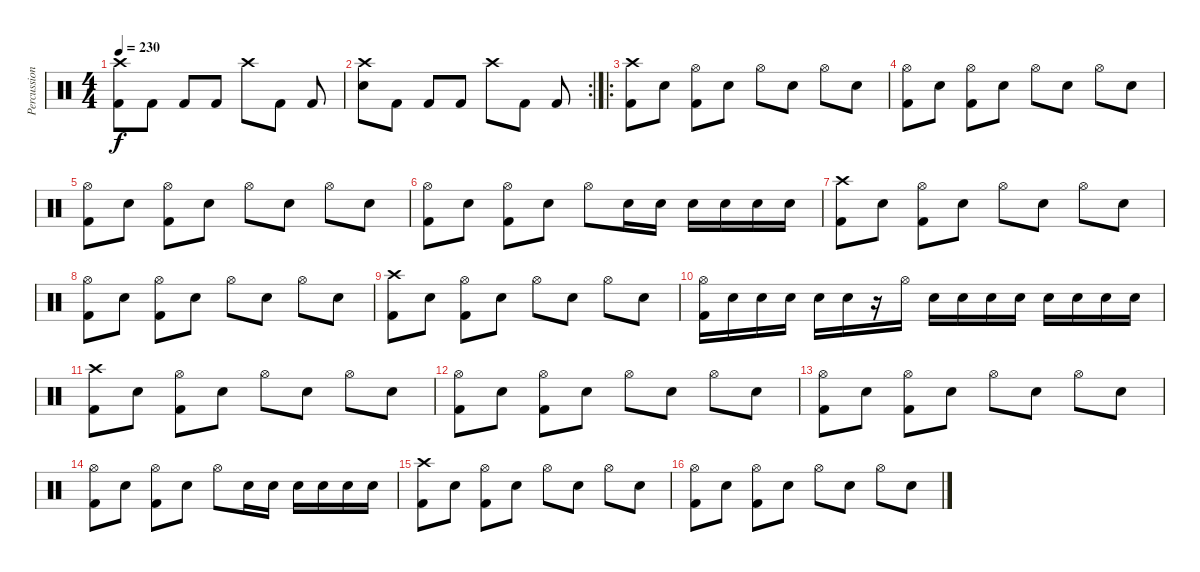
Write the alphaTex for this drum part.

\track ("Percussion" "Percussion") {instrument percussion}
\staff {score}
\articulation defaults
\ts (4 4)
\tempo 230
\clef neutral
\ks c
("Crash high (hit)" "Kick (hit) 2").8{dy f} "Kick (hit) 2".8 "Kick (hit) 2".8 "Kick (hit) 2".8 "Crash high (hit)".8 "Kick (hit) 2".8 "Kick (hit) 2".8 |
\rc 2
("Crash high (hit)" "Electric Snare (hit)").8 "Kick (hit) 2".8 "Kick (hit) 2".8 "Kick (hit) 2".8 "Crash high (hit)".8 "Kick (hit) 2".8 "Kick (hit) 2".8 |
\ro
("Crash high (hit)" "Kick (hit) 2").8 "Electric Snare (hit)".8 ("Hi-Hat (open)" "Kick (hit) 2").8 "Electric Snare (hit)".8 "Hi-Hat (open)".8 "Electric Snare (hit)".8 "Hi-Hat (open)".8 "Electric Snare (hit)".8 |
("Hi-Hat (open)" "Kick (hit) 2").8 "Electric Snare (hit)".8 ("Hi-Hat (open)" "Kick (hit) 2").8 "Electric Snare (hit)".8 "Hi-Hat (open)".8 "Electric Snare (hit)".8 "Hi-Hat (open)".8 "Electric Snare (hit)".8 |
("Hi-Hat (open)" "Kick (hit) 2").8 "Electric Snare (hit)".8 ("Hi-Hat (open)" "Kick (hit) 2").8 "Electric Snare (hit)".8 "Hi-Hat (open)".8 "Electric Snare (hit)".8 "Hi-Hat (open)".8 "Electric Snare (hit)".8 |
("Hi-Hat (open)" "Kick (hit) 2").8 "Electric Snare (hit)".8 ("Hi-Hat (open)" "Kick (hit) 2").8 "Electric Snare (hit)".8 "Hi-Hat (open)".8 "Electric Snare (hit)".16 "Electric Snare (hit)".16 "Electric Snare (hit)".16 "Electric Snare (hit)".16 "Electric Snare (hit)".16 "Electric Snare (hit)".16 |
("Crash high (hit)" "Kick (hit) 2").8 "Electric Snare (hit)".8 ("Hi-Hat (open)" "Kick (hit) 2").8 "Electric Snare (hit)".8 "Hi-Hat (open)".8 "Electric Snare (hit)".8 "Hi-Hat (open)".8 "Electric Snare (hit)".8 |
("Hi-Hat (open)" "Kick (hit) 2").8 "Electric Snare (hit)".8 ("Hi-Hat (open)" "Kick (hit) 2").8 "Electric Snare (hit)".8 "Hi-Hat (open)".8 "Electric Snare (hit)".8 "Hi-Hat (open)".8 "Electric Snare (hit)".8 |
("Crash high (hit)" "Kick (hit) 2").8 "Electric Snare (hit)".8 ("Hi-Hat (open)" "Kick (hit) 2").8 "Electric Snare (hit)".8 "Hi-Hat (open)".8 "Electric Snare (hit)".8 "Hi-Hat (open)".8 "Electric Snare (hit)".8 |
("Hi-Hat (open)" "Kick (hit) 2").16 "Electric Snare (hit)".16 "Electric Snare (hit)".16 "Electric Snare (hit)".16 "Electric Snare (hit)".16 "Electric Snare (hit)".16 r.16 "Hi-Hat (open)".16 "Electric Snare (hit)".16 "Electric Snare (hit)".16 "Electric Snare (hit)".16 "Electric Snare (hit)".16 "Electric Snare (hit)".16 "Electric Snare (hit)".16 "Electric Snare (hit)".16 "Electric Snare (hit)".16 |
("Crash high (hit)" "Kick (hit) 2").8 "Electric Snare (hit)".8 ("Hi-Hat (open)" "Kick (hit) 2").8 "Electric Snare (hit)".8 "Hi-Hat (open)".8 "Electric Snare (hit)".8 "Hi-Hat (open)".8 "Electric Snare (hit)".8 |
("Hi-Hat (open)" "Kick (hit) 2").8 "Electric Snare (hit)".8 ("Hi-Hat (open)" "Kick (hit) 2").8 "Electric Snare (hit)".8 "Hi-Hat (open)".8 "Electric Snare (hit)".8 "Hi-Hat (open)".8 "Electric Snare (hit)".8 |
("Hi-Hat (open)" "Kick (hit) 2").8 "Electric Snare (hit)".8 ("Hi-Hat (open)" "Kick (hit) 2").8 "Electric Snare (hit)".8 "Hi-Hat (open)".8 "Electric Snare (hit)".8 "Hi-Hat (open)".8 "Electric Snare (hit)".8 |
("Hi-Hat (open)" "Kick (hit) 2").8 "Electric Snare (hit)".8 ("Hi-Hat (open)" "Kick (hit) 2").8 "Electric Snare (hit)".8 "Hi-Hat (open)".8 "Electric Snare (hit)".16 "Electric Snare (hit)".16 "Electric Snare (hit)".16 "Electric Snare (hit)".16 "Electric Snare (hit)".16 "Electric Snare (hit)".16 |
("Crash high (hit)" "Kick (hit) 2").8 "Electric Snare (hit)".8 ("Hi-Hat (open)" "Kick (hit) 2").8 "Electric Snare (hit)".8 "Hi-Hat (open)".8 "Electric Snare (hit)".8 "Hi-Hat (open)".8 "Electric Snare (hit)".8 |
("Hi-Hat (open)" "Kick (hit) 2").8 "Electric Snare (hit)".8 ("Hi-Hat (open)" "Kick (hit) 2").8 "Electric Snare (hit)".8 "Hi-Hat (open)".8 "Electric Snare (hit)".8 "Hi-Hat (open)".8 "Electric Snare (hit)".8
